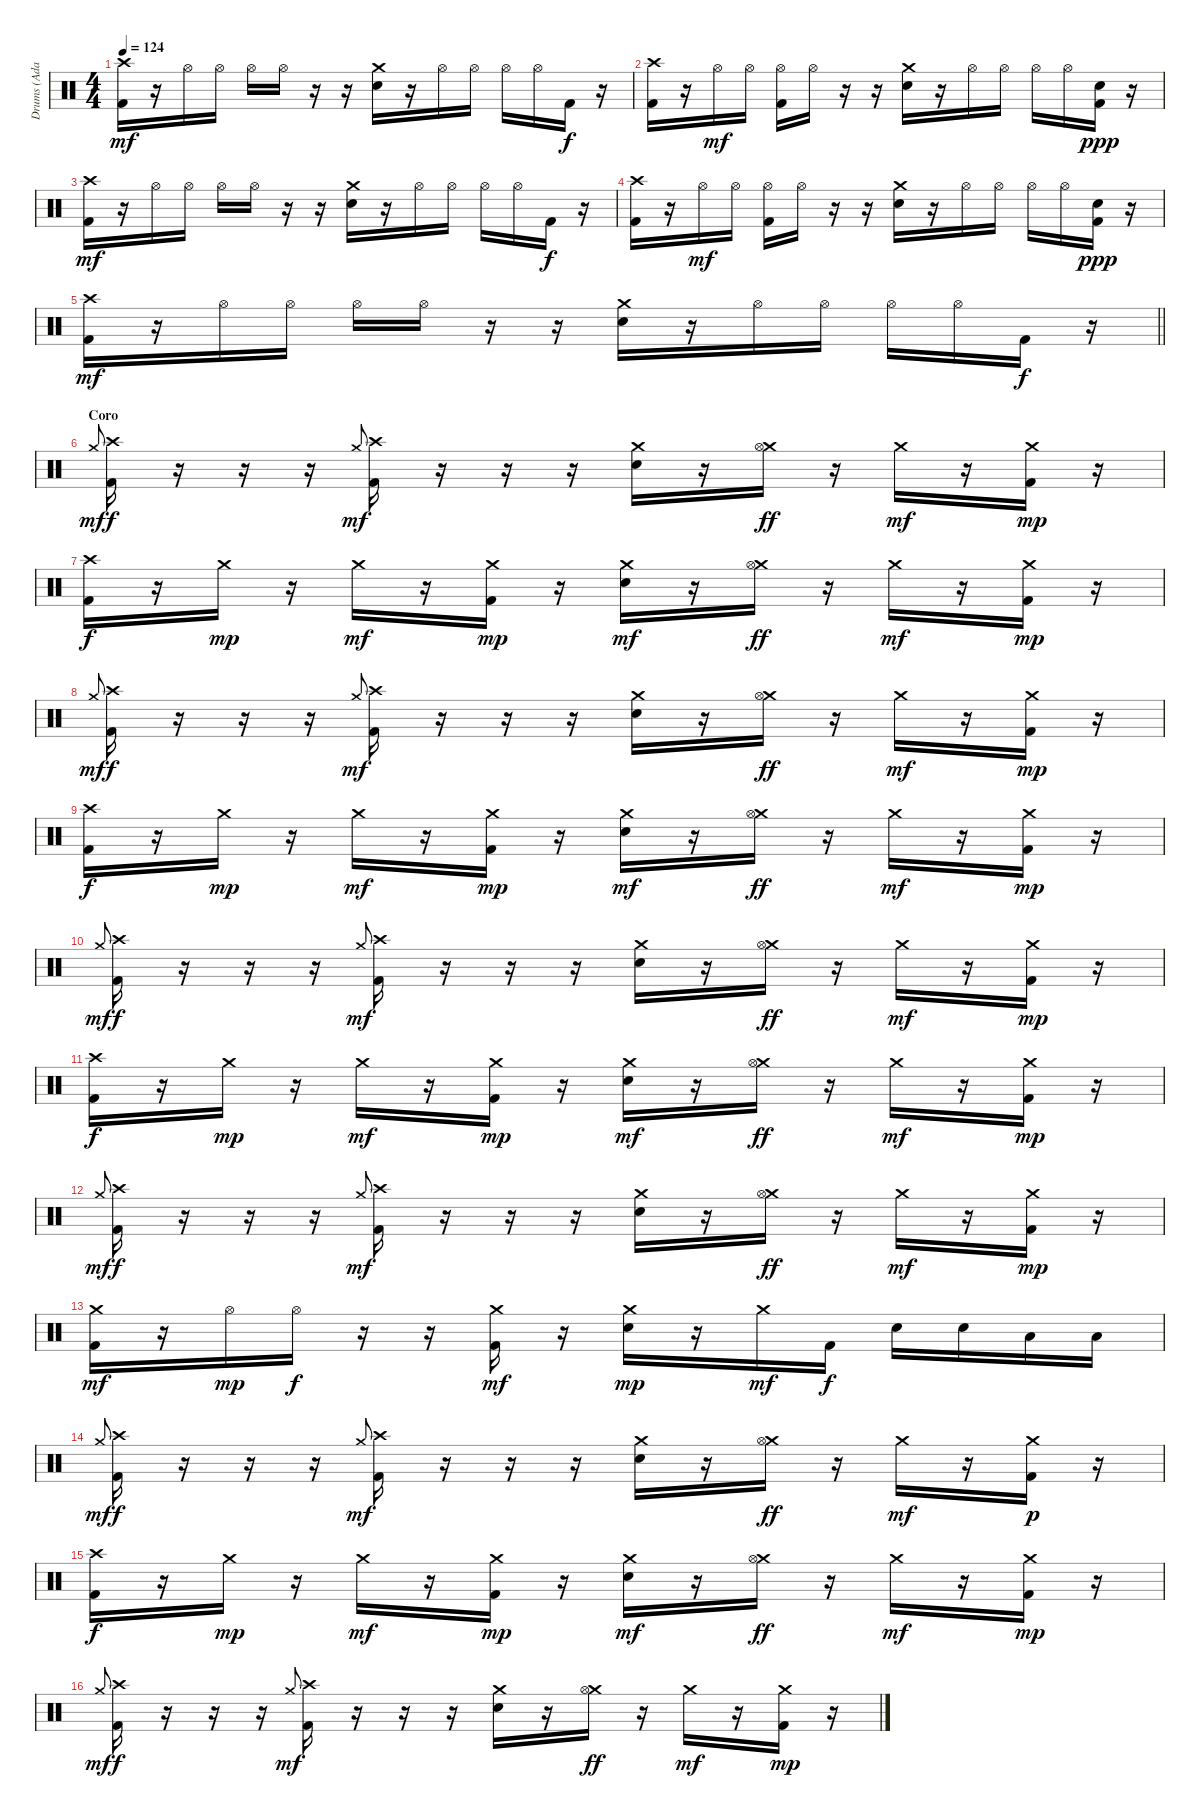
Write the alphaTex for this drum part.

\track ("Drums (Adam Morgan)" "Drums (Ada") {instrument percussion}
\staff {score}
\articulation defaults
\ts (4 4)
\tempo 124
\clef neutral
\ks c
("Crash high (hit)" "Kick (hit) 2").16{dy mf} r.16 "Hi-Hat (open)".16 "Hi-Hat (open)".16 "Hi-Hat (open)".16 "Hi-Hat (open)".16 r.16 r.16 ("Crash medium (hit)" "Snare (hit) 2").16 r.16 "Hi-Hat (open)".16 "Hi-Hat (open)".16 "Hi-Hat (open)".16 "Hi-Hat (open)".16 "Kick (hit) 2".16{dy f} r.16 |
("Crash high (hit)" "Kick (hit) 2").16 r.16 "Hi-Hat (open)".16{dy mf} "Hi-Hat (open)".16 ("Hi-Hat (open)" "Kick (hit) 2").16 "Hi-Hat (open)".16 r.16 r.16 ("Crash medium (hit)" "Snare (hit) 2").16 r.16 "Hi-Hat (open)".16 "Hi-Hat (open)".16 "Hi-Hat (open)".16 "Hi-Hat (open)".16 ("Snare (hit) 2" "Kick (hit) 2").16{dy ppp} r.16 |
("Crash high (hit)" "Kick (hit) 2").16{dy mf} r.16 "Hi-Hat (open)".16 "Hi-Hat (open)".16 "Hi-Hat (open)".16 "Hi-Hat (open)".16 r.16 r.16 ("Crash medium (hit)" "Snare (hit) 2").16 r.16 "Hi-Hat (open)".16 "Hi-Hat (open)".16 "Hi-Hat (open)".16 "Hi-Hat (open)".16 "Kick (hit) 2".16{dy f} r.16 |
("Crash high (hit)" "Kick (hit) 2").16 r.16 "Hi-Hat (open)".16{dy mf} "Hi-Hat (open)".16 ("Hi-Hat (open)" "Kick (hit) 2").16 "Hi-Hat (open)".16 r.16 r.16 ("Crash medium (hit)" "Snare (hit) 2").16 r.16 "Hi-Hat (open)".16 "Hi-Hat (open)".16 "Hi-Hat (open)".16 "Hi-Hat (open)".16 ("Snare (hit) 2" "Kick (hit) 2").16{dy ppp} r.16 |
\barLineRight lightlight
("Crash high (hit)" "Kick (hit) 2").16{dy mf} r.16 "Hi-Hat (open)".16 "Hi-Hat (open)".16 "Hi-Hat (open)".16 "Hi-Hat (open)".16 r.16 r.16 ("Crash medium (hit)" "Snare (hit) 2").16 r.16 "Hi-Hat (open)".16 "Hi-Hat (open)".16 "Hi-Hat (open)".16 "Hi-Hat (open)".16 "Kick (hit) 2".16{dy f} r.16 |
\section ("" "Coro")
"Crash medium (hit)".8{gr onbeat dy mf} ("Crash high (hit)" "Kick (hit) 2").16{dy f} r.16 r.16 r.16 "Crash medium (hit)".8{gr onbeat dy mf} ("Crash high (hit)" "Kick (hit) 2").16 r.16 r.16 r.16 ("Crash medium (hit)" "Snare (hit) 2").16 r.16 ("Crash medium (hit)" "Hi-Hat (open)").16{dy ff} r.16 "Crash medium (hit)".16{dy mf} r.16 ("Crash medium (hit)" "Kick (hit) 2").16{dy mp} r.16 |
("Crash high (hit)" "Kick (hit) 2").16{dy f} r.16 "Crash medium (hit)".16{dy mp} r.16 "Crash medium (hit)".16{dy mf} r.16 ("Crash medium (hit)" "Kick (hit) 2").16{dy mp} r.16 ("Crash medium (hit)" "Snare (hit) 2").16{dy mf} r.16 ("Crash medium (hit)" "Hi-Hat (open)").16{dy ff} r.16 "Crash medium (hit)".16{dy mf} r.16 ("Crash medium (hit)" "Kick (hit) 2").16{dy mp} r.16 |
"Crash medium (hit)".8{gr onbeat dy mf} ("Crash high (hit)" "Kick (hit) 2").16{dy f} r.16 r.16 r.16 "Crash medium (hit)".8{gr onbeat dy mf} ("Crash high (hit)" "Kick (hit) 2").16 r.16 r.16 r.16 ("Crash medium (hit)" "Snare (hit) 2").16 r.16 ("Crash medium (hit)" "Hi-Hat (open)").16{dy ff} r.16 "Crash medium (hit)".16{dy mf} r.16 ("Crash medium (hit)" "Kick (hit) 2").16{dy mp} r.16 |
("Crash high (hit)" "Kick (hit) 2").16{dy f} r.16 "Crash medium (hit)".16{dy mp} r.16 "Crash medium (hit)".16{dy mf} r.16 ("Crash medium (hit)" "Kick (hit) 2").16{dy mp} r.16 ("Crash medium (hit)" "Snare (hit) 2").16{dy mf} r.16 ("Crash medium (hit)" "Hi-Hat (open)").16{dy ff} r.16 "Crash medium (hit)".16{dy mf} r.16 ("Crash medium (hit)" "Kick (hit) 2").16{dy mp} r.16 |
"Crash medium (hit)".8{gr onbeat dy mf} ("Crash high (hit)" "Kick (hit) 2").16{dy f} r.16 r.16 r.16 "Crash medium (hit)".8{gr onbeat dy mf} ("Crash high (hit)" "Kick (hit) 2").16 r.16 r.16 r.16 ("Crash medium (hit)" "Snare (hit) 2").16 r.16 ("Crash medium (hit)" "Hi-Hat (open)").16{dy ff} r.16 "Crash medium (hit)".16{dy mf} r.16 ("Crash medium (hit)" "Kick (hit) 2").16{dy mp} r.16 |
("Crash high (hit)" "Kick (hit) 2").16{dy f} r.16 "Crash medium (hit)".16{dy mp} r.16 "Crash medium (hit)".16{dy mf} r.16 ("Crash medium (hit)" "Kick (hit) 2").16{dy mp} r.16 ("Crash medium (hit)" "Snare (hit) 2").16{dy mf} r.16 ("Crash medium (hit)" "Hi-Hat (open)").16{dy ff} r.16 "Crash medium (hit)".16{dy mf} r.16 ("Crash medium (hit)" "Kick (hit) 2").16{dy mp} r.16 |
"Crash medium (hit)".8{gr onbeat dy mf} ("Crash high (hit)" "Kick (hit) 2").16{dy f} r.16 r.16 r.16 "Crash medium (hit)".8{gr onbeat dy mf} ("Crash high (hit)" "Kick (hit) 2").16 r.16 r.16 r.16 ("Crash medium (hit)" "Snare (hit) 2").16 r.16 ("Crash medium (hit)" "Hi-Hat (open)").16{dy ff} r.16 "Crash medium (hit)".16{dy mf} r.16 ("Crash medium (hit)" "Kick (hit) 2").16{dy mp} r.16 |
("Crash medium (hit)" "Kick (hit) 2").16{dy mf} r.16 "Hi-Hat (open)".16{dy mp} "Hi-Hat (open)".16{dy f} r.16 r.16 ("Crash medium (hit)" "Kick (hit) 2").16{dy mf} r.16 ("Crash medium (hit)" "Snare (hit) 2").16{dy mp} r.16 "Crash medium (hit)".16{dy mf} "Kick (hit) 2".16{dy f} "Snare (hit) 2".16 "Snare (hit) 2".16 "Low Tom (hit)".16 "Low Tom (hit)".16 |
"Crash medium (hit)".8{gr onbeat dy mf} ("Crash high (hit)" "Kick (hit) 2").16{dy f} r.16 r.16 r.16 "Crash medium (hit)".8{gr onbeat dy mf} ("Crash high (hit)" "Kick (hit) 2").16 r.16 r.16 r.16 ("Crash medium (hit)" "Snare (hit) 2").16 r.16 ("Crash medium (hit)" "Hi-Hat (open)").16{dy ff} r.16 "Crash medium (hit)".16{dy mf} r.16 ("Crash medium (hit)" "Kick (hit) 2").16{dy p} r.16 |
("Crash high (hit)" "Kick (hit) 2").16{dy f} r.16 "Crash medium (hit)".16{dy mp} r.16 "Crash medium (hit)".16{dy mf} r.16 ("Crash medium (hit)" "Kick (hit) 2").16{dy mp} r.16 ("Crash medium (hit)" "Snare (hit) 2").16{dy mf} r.16 ("Crash medium (hit)" "Hi-Hat (open)").16{dy ff} r.16 "Crash medium (hit)".16{dy mf} r.16 ("Crash medium (hit)" "Kick (hit) 2").16{dy mp} r.16 |
"Crash medium (hit)".8{gr onbeat dy mf} ("Crash high (hit)" "Kick (hit) 2").16{dy f} r.16 r.16 r.16 "Crash medium (hit)".8{gr onbeat dy mf} ("Crash high (hit)" "Kick (hit) 2").16 r.16 r.16 r.16 ("Crash medium (hit)" "Snare (hit) 2").16 r.16 ("Crash medium (hit)" "Hi-Hat (open)").16{dy ff} r.16 "Crash medium (hit)".16{dy mf} r.16 ("Crash medium (hit)" "Kick (hit) 2").16{dy mp} r.16
